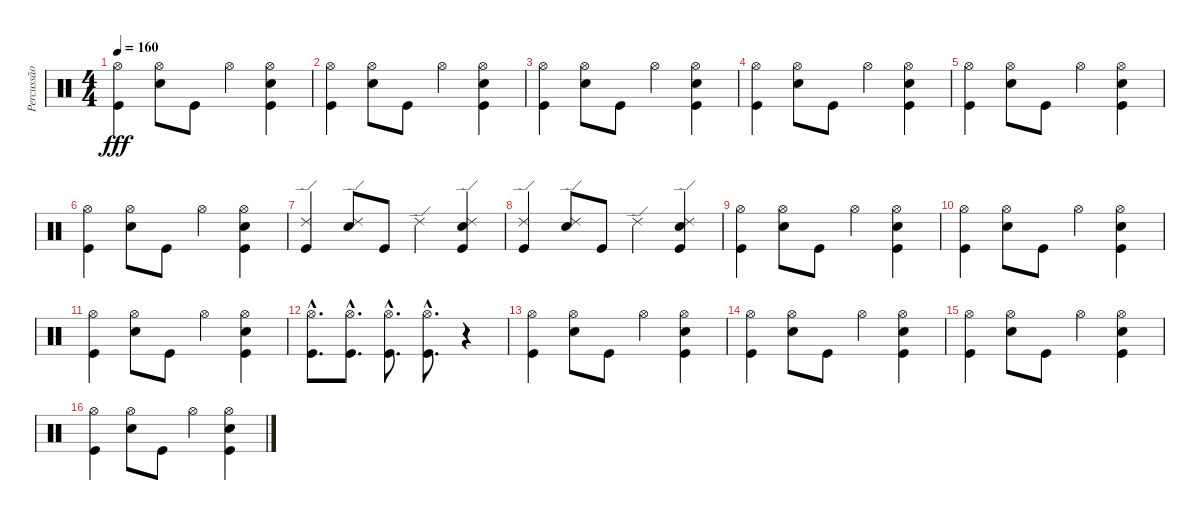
\track ("Percussão" "Percussão") {instrument percussion}
\staff {score}
\articulation defaults
\ts (4 4)
\tempo 160
\clef neutral
\ks c
("Hi-Hat (open)" "Kick (hit)").4{dy fff} ("Hi-Hat (open)" "Snare (hit) 2").8 "Kick (hit)".8 "Hi-Hat (open)".4 ("Hi-Hat (open)" "Snare (hit) 2" "Kick (hit)").4 |
("Hi-Hat (open)" "Kick (hit)").4 ("Hi-Hat (open)" "Snare (hit) 2").8 "Kick (hit)".8 "Hi-Hat (open)".4 ("Hi-Hat (open)" "Snare (hit) 2" "Kick (hit)").4 |
("Hi-Hat (open)" "Kick (hit)").4 ("Hi-Hat (open)" "Snare (hit) 2").8 "Kick (hit)".8 "Hi-Hat (open)".4 ("Hi-Hat (open)" "Snare (hit) 2" "Kick (hit)").4 |
("Hi-Hat (open)" "Kick (hit)").4 ("Hi-Hat (open)" "Snare (hit) 2").8 "Kick (hit)".8 "Hi-Hat (open)".4 ("Hi-Hat (open)" "Snare (hit) 2" "Kick (hit)").4 |
("Hi-Hat (open)" "Kick (hit)").4 ("Hi-Hat (open)" "Snare (hit) 2").8 "Kick (hit)".8 "Hi-Hat (open)".4 ("Hi-Hat (open)" "Snare (hit) 2" "Kick (hit)").4 |
("Hi-Hat (open)" "Kick (hit)").4 ("Hi-Hat (open)" "Snare (hit) 2").8 "Kick (hit)".8 "Hi-Hat (open)".4 ("Hi-Hat (open)" "Snare (hit) 2" "Kick (hit)").4 |
("Ride (edge) 2" "Kick (hit)").4 ("Ride (edge) 2" "Snare (hit) 2").8 "Kick (hit)".8 "Ride (edge) 2".4 ("Ride (edge) 2" "Snare (hit) 2" "Kick (hit)").4 |
("Ride (edge) 2" "Kick (hit)").4 ("Ride (edge) 2" "Snare (hit) 2").8 "Kick (hit)".8 "Ride (edge) 2".4 ("Ride (edge) 2" "Snare (hit) 2" "Kick (hit)").4 |
("Hi-Hat (open)" "Kick (hit)").4 ("Hi-Hat (open)" "Snare (hit) 2").8 "Kick (hit)".8 "Hi-Hat (open)".4 ("Hi-Hat (open)" "Snare (hit) 2" "Kick (hit)").4 |
("Hi-Hat (open)" "Kick (hit)").4 ("Hi-Hat (open)" "Snare (hit) 2").8 "Kick (hit)".8 "Hi-Hat (open)".4 ("Hi-Hat (open)" "Snare (hit) 2" "Kick (hit)").4 |
("Hi-Hat (open)" "Kick (hit)").4 ("Hi-Hat (open)" "Snare (hit) 2").8 "Kick (hit)".8 "Hi-Hat (open)".4 ("Hi-Hat (open)" "Snare (hit) 2" "Kick (hit)").4 |
("Hi-Hat (open)"{hac} "Kick (hit)"{hac}).8{d} ("Hi-Hat (open)"{hac} "Kick (hit)"{hac}).8{d} ("Hi-Hat (open)"{hac} "Kick (hit)"{hac}).8{d} ("Hi-Hat (open)"{hac} "Kick (hit)"{hac}).8{d} r.4 |
("Hi-Hat (open)" "Kick (hit)").4 ("Hi-Hat (open)" "Snare (hit) 2").8 "Kick (hit)".8 "Hi-Hat (open)".4 ("Hi-Hat (open)" "Snare (hit) 2" "Kick (hit)").4 |
("Hi-Hat (open)" "Kick (hit)").4 ("Hi-Hat (open)" "Snare (hit) 2").8 "Kick (hit)".8 "Hi-Hat (open)".4 ("Hi-Hat (open)" "Snare (hit) 2" "Kick (hit)").4 |
("Hi-Hat (open)" "Kick (hit)").4 ("Hi-Hat (open)" "Snare (hit) 2").8 "Kick (hit)".8 "Hi-Hat (open)".4 ("Hi-Hat (open)" "Snare (hit) 2" "Kick (hit)").4 |
("Hi-Hat (open)" "Kick (hit)").4 ("Hi-Hat (open)" "Snare (hit) 2").8 "Kick (hit)".8 "Hi-Hat (open)".4 ("Hi-Hat (open)" "Snare (hit) 2" "Kick (hit)").4
